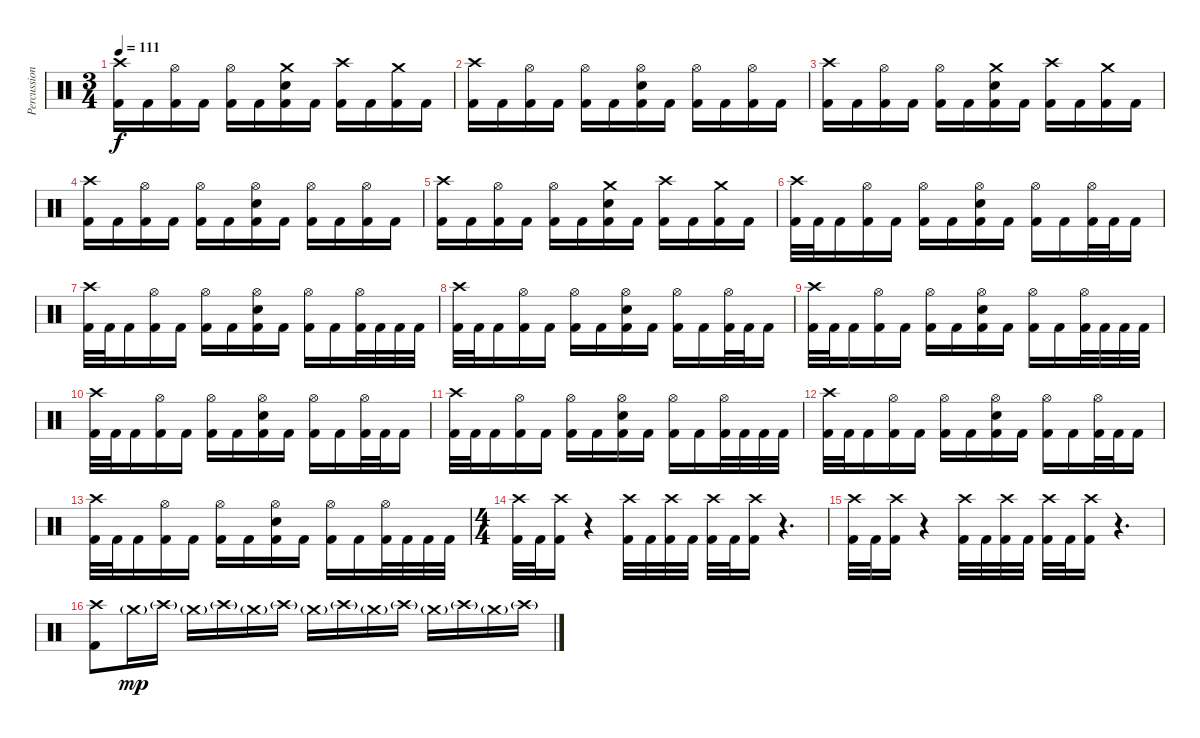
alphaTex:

\track ("Percussion" "Percussion") {instrument percussion}
\staff {score}
\articulation defaults
\ts (3 4)
\tempo 111
\clef neutral
\ks c
("Crash high (hit)" "Kick (hit) 2").16{dy f} "Kick (hit) 2".16 ("Hi-Hat (open)" "Kick (hit) 2").16 "Kick (hit) 2".16 ("Hi-Hat (open)" "Kick (hit) 2").16 "Kick (hit) 2".16 ("Crash medium (hit)" "Electric Snare (hit)" "Kick (hit) 2").16 "Kick (hit) 2".16 ("Crash high (hit)" "Kick (hit) 2").16 "Kick (hit) 2".16 ("Crash medium (hit)" "Kick (hit) 2").16 "Kick (hit) 2".16 |
("Crash high (hit)" "Kick (hit) 2").16 "Kick (hit) 2".16 ("Hi-Hat (open)" "Kick (hit) 2").16 "Kick (hit) 2".16 ("Hi-Hat (open)" "Kick (hit) 2").16 "Kick (hit) 2".16 ("Hi-Hat (open)" "Electric Snare (hit)" "Kick (hit) 2").16 "Kick (hit) 2".16 ("Hi-Hat (open)" "Kick (hit) 2").16 "Kick (hit) 2".16 ("Hi-Hat (open)" "Kick (hit) 2").16 "Kick (hit) 2".16 |
("Crash high (hit)" "Kick (hit) 2").16 "Kick (hit) 2".16 ("Hi-Hat (open)" "Kick (hit) 2").16 "Kick (hit) 2".16 ("Hi-Hat (open)" "Kick (hit) 2").16 "Kick (hit) 2".16 ("Crash medium (hit)" "Electric Snare (hit)" "Kick (hit) 2").16 "Kick (hit) 2".16 ("Crash high (hit)" "Kick (hit) 2").16 "Kick (hit) 2".16 ("Crash medium (hit)" "Kick (hit) 2").16 "Kick (hit) 2".16 |
("Crash high (hit)" "Kick (hit) 2").16 "Kick (hit) 2".16 ("Hi-Hat (open)" "Kick (hit) 2").16 "Kick (hit) 2".16 ("Hi-Hat (open)" "Kick (hit) 2").16 "Kick (hit) 2".16 ("Hi-Hat (open)" "Electric Snare (hit)" "Kick (hit) 2").16 "Kick (hit) 2".16 ("Hi-Hat (open)" "Kick (hit) 2").16 "Kick (hit) 2".16 ("Hi-Hat (open)" "Kick (hit) 2").16 "Kick (hit) 2".16 |
("Crash high (hit)" "Kick (hit) 2").16 "Kick (hit) 2".16 ("Hi-Hat (open)" "Kick (hit) 2").16 "Kick (hit) 2".16 ("Hi-Hat (open)" "Kick (hit) 2").16 "Kick (hit) 2".16 ("Crash medium (hit)" "Electric Snare (hit)" "Kick (hit) 2").16 "Kick (hit) 2".16 ("Crash high (hit)" "Kick (hit) 2").16 "Kick (hit) 2".16 ("Crash medium (hit)" "Kick (hit) 2").16 "Kick (hit) 2".16 |
("Crash high (hit)" "Kick (hit) 2").32 "Kick (hit) 2".32 "Kick (hit) 2".16 ("Hi-Hat (open)" "Kick (hit) 2").16 "Kick (hit) 2".16 ("Hi-Hat (open)" "Kick (hit) 2").16 "Kick (hit) 2".16 ("Hi-Hat (open)" "Electric Snare (hit)" "Kick (hit) 2").16 "Kick (hit) 2".16 ("Hi-Hat (open)" "Kick (hit) 2").16 "Kick (hit) 2".16 ("Hi-Hat (open)" "Kick (hit) 2").32 "Kick (hit) 2".32 "Kick (hit) 2".16 |
("Crash high (hit)" "Kick (hit) 2").32 "Kick (hit) 2".32 "Kick (hit) 2".16 ("Hi-Hat (open)" "Kick (hit) 2").16 "Kick (hit) 2".16 ("Hi-Hat (open)" "Kick (hit) 2").16 "Kick (hit) 2".16 ("Hi-Hat (open)" "Electric Snare (hit)" "Kick (hit) 2").16 "Kick (hit) 2".16 ("Hi-Hat (open)" "Kick (hit) 2").16 "Kick (hit) 2".16 ("Hi-Hat (open)" "Kick (hit) 2").32 "Kick (hit) 2".32 "Kick (hit) 2".32 "Kick (hit) 2".32 |
("Crash high (hit)" "Kick (hit) 2").32 "Kick (hit) 2".32 "Kick (hit) 2".16 ("Hi-Hat (open)" "Kick (hit) 2").16 "Kick (hit) 2".16 ("Hi-Hat (open)" "Kick (hit) 2").16 "Kick (hit) 2".16 ("Hi-Hat (open)" "Electric Snare (hit)" "Kick (hit) 2").16 "Kick (hit) 2".16 ("Hi-Hat (open)" "Kick (hit) 2").16 "Kick (hit) 2".16 ("Hi-Hat (open)" "Kick (hit) 2").32 "Kick (hit) 2".32 "Kick (hit) 2".16 |
("Crash high (hit)" "Kick (hit) 2").32 "Kick (hit) 2".32 "Kick (hit) 2".16 ("Hi-Hat (open)" "Kick (hit) 2").16 "Kick (hit) 2".16 ("Hi-Hat (open)" "Kick (hit) 2").16 "Kick (hit) 2".16 ("Hi-Hat (open)" "Electric Snare (hit)" "Kick (hit) 2").16 "Kick (hit) 2".16 ("Hi-Hat (open)" "Kick (hit) 2").16 "Kick (hit) 2".16 ("Hi-Hat (open)" "Kick (hit) 2").32 "Kick (hit) 2".32 "Kick (hit) 2".32 "Kick (hit) 2".32 |
("Crash high (hit)" "Kick (hit) 2").32 "Kick (hit) 2".32 "Kick (hit) 2".16 ("Hi-Hat (open)" "Kick (hit) 2").16 "Kick (hit) 2".16 ("Hi-Hat (open)" "Kick (hit) 2").16 "Kick (hit) 2".16 ("Hi-Hat (open)" "Electric Snare (hit)" "Kick (hit) 2").16 "Kick (hit) 2".16 ("Hi-Hat (open)" "Kick (hit) 2").16 "Kick (hit) 2".16 ("Hi-Hat (open)" "Kick (hit) 2").32 "Kick (hit) 2".32 "Kick (hit) 2".16 |
("Crash high (hit)" "Kick (hit) 2").32 "Kick (hit) 2".32 "Kick (hit) 2".16 ("Hi-Hat (open)" "Kick (hit) 2").16 "Kick (hit) 2".16 ("Hi-Hat (open)" "Kick (hit) 2").16 "Kick (hit) 2".16 ("Hi-Hat (open)" "Electric Snare (hit)" "Kick (hit) 2").16 "Kick (hit) 2".16 ("Hi-Hat (open)" "Kick (hit) 2").16 "Kick (hit) 2".16 ("Hi-Hat (open)" "Kick (hit) 2").32 "Kick (hit) 2".32 "Kick (hit) 2".32 "Kick (hit) 2".32 |
("Crash high (hit)" "Kick (hit) 2").32 "Kick (hit) 2".32 "Kick (hit) 2".16 ("Hi-Hat (open)" "Kick (hit) 2").16 "Kick (hit) 2".16 ("Hi-Hat (open)" "Kick (hit) 2").16 "Kick (hit) 2".16 ("Hi-Hat (open)" "Electric Snare (hit)" "Kick (hit) 2").16 "Kick (hit) 2".16 ("Hi-Hat (open)" "Kick (hit) 2").16 "Kick (hit) 2".16 ("Hi-Hat (open)" "Kick (hit) 2").32 "Kick (hit) 2".32 "Kick (hit) 2".16 |
("Crash high (hit)" "Kick (hit) 2").32 "Kick (hit) 2".32 "Kick (hit) 2".16 ("Hi-Hat (open)" "Kick (hit) 2").16 "Kick (hit) 2".16 ("Hi-Hat (open)" "Kick (hit) 2").16 "Kick (hit) 2".16 ("Hi-Hat (open)" "Electric Snare (hit)" "Kick (hit) 2").16 "Kick (hit) 2".16 ("Hi-Hat (open)" "Kick (hit) 2").16 "Kick (hit) 2".16 ("Hi-Hat (open)" "Kick (hit) 2").32 "Kick (hit) 2".32 "Kick (hit) 2".32 "Kick (hit) 2".32 |
\ts (4 4)
("Crash high (hit)" "Kick (hit) 2").32 "Kick (hit) 2".32 ("Crash high (hit)" "Kick (hit) 2").16 r.4 ("Crash high (hit)" "Kick (hit) 2").32 "Kick (hit) 2".32 ("Crash high (hit)" "Kick (hit) 2").32 "Kick (hit) 2".32 ("Crash high (hit)" "Kick (hit) 2").32 "Kick (hit) 2".32 ("Crash high (hit)" "Kick (hit) 2").16 r.4{d} |
("Crash high (hit)" "Kick (hit) 2").32 "Kick (hit) 2".32 ("Crash high (hit)" "Kick (hit) 2").16 r.4 ("Crash high (hit)" "Kick (hit) 2").32 "Kick (hit) 2".32 ("Crash high (hit)" "Kick (hit) 2").32 "Kick (hit) 2".32 ("Crash high (hit)" "Kick (hit) 2").32 "Kick (hit) 2".32 ("Crash high (hit)" "Kick (hit) 2").16 r.4{d} |
("Crash high (hit)" "Kick (hit) 2").8 "Crash medium (hit)"{g}.16{dy mp} "Crash high (hit)"{g}.16 "Crash medium (hit)"{g}.16 "Crash high (hit)"{g}.16 "Crash medium (hit)"{g}.16 "Crash high (hit)"{g}.16 "Crash medium (hit)"{g}.16 "Crash high (hit)"{g}.16 "Crash medium (hit)"{g}.16 "Crash high (hit)"{g}.16 "Crash medium (hit)"{g}.16 "Crash high (hit)"{g}.16 "Crash medium (hit)"{g}.16 "Crash high (hit)"{g}.16
